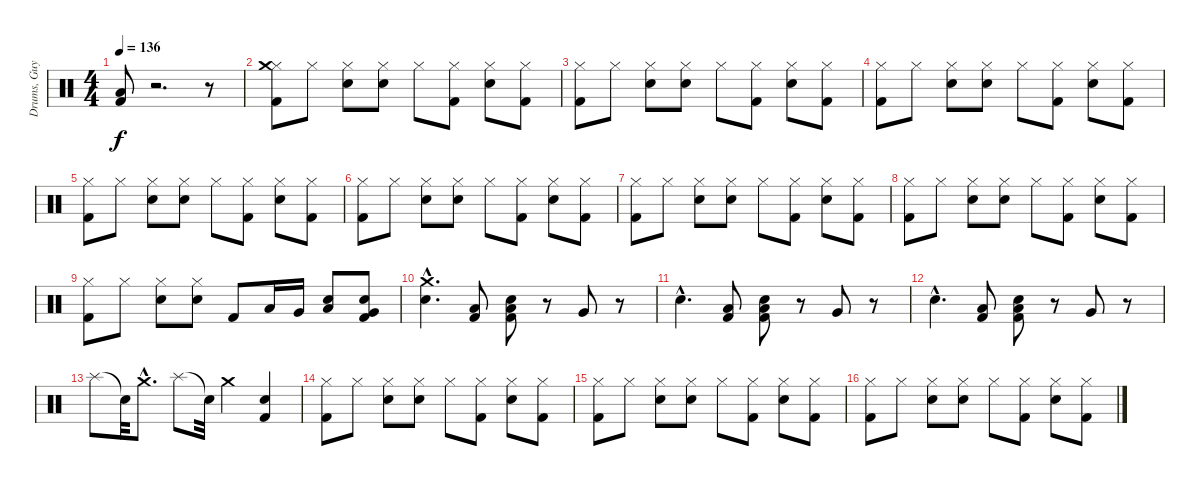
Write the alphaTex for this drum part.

\track ("Drums, Guy" "Drums, Guy") {instrument percussion}
\staff {score}
\articulation defaults
\ts (4 4)
\tempo 136
\clef neutral
\ks c
("Low Floor Tom (hit)" "Kick (hit) 2").8{dy f} r.2{d} r.8 |
("Kick (hit) 2" "Hi-Hat (closed)" "Crash medium (hit)").8 "Hi-Hat (closed)".8 ("Electric Snare (hit)" "Hi-Hat (closed)").8 ("Electric Snare (hit)" "Hi-Hat (closed)").8 "Hi-Hat (closed)".8 ("Kick (hit) 2" "Hi-Hat (closed)").8 ("Electric Snare (hit)" "Hi-Hat (closed)").8 ("Kick (hit) 2" "Hi-Hat (closed)").8 |
("Hi-Hat (closed)" "Kick (hit) 2").8 "Hi-Hat (closed)".8 ("Electric Snare (hit)" "Hi-Hat (closed)").8 ("Electric Snare (hit)" "Hi-Hat (closed)").8 "Hi-Hat (closed)".8 ("Kick (hit) 2" "Hi-Hat (closed)").8 ("Electric Snare (hit)" "Hi-Hat (closed)").8 ("Kick (hit) 2" "Hi-Hat (closed)").8 |
("Kick (hit) 2" "Hi-Hat (closed)").8 "Hi-Hat (closed)".8 ("Electric Snare (hit)" "Hi-Hat (closed)").8 ("Electric Snare (hit)" "Hi-Hat (closed)").8 "Hi-Hat (closed)".8 ("Kick (hit) 2" "Hi-Hat (closed)").8 ("Electric Snare (hit)" "Hi-Hat (closed)").8 ("Kick (hit) 2" "Hi-Hat (closed)").8 |
("Kick (hit) 2" "Hi-Hat (closed)").8 "Hi-Hat (closed)".8 ("Electric Snare (hit)" "Hi-Hat (closed)").8 ("Electric Snare (hit)" "Hi-Hat (closed)").8 "Hi-Hat (closed)".8 ("Kick (hit) 2" "Hi-Hat (closed)").8 ("Electric Snare (hit)" "Hi-Hat (closed)").8 ("Kick (hit) 2" "Hi-Hat (closed)").8 |
("Kick (hit) 2" "Hi-Hat (closed)").8 "Hi-Hat (closed)".8 ("Electric Snare (hit)" "Hi-Hat (closed)").8 ("Electric Snare (hit)" "Hi-Hat (closed)").8 "Hi-Hat (closed)".8 ("Kick (hit) 2" "Hi-Hat (closed)").8 ("Electric Snare (hit)" "Hi-Hat (closed)").8 ("Kick (hit) 2" "Hi-Hat (closed)").8 |
("Kick (hit) 2" "Hi-Hat (closed)").8 "Hi-Hat (closed)".8 ("Electric Snare (hit)" "Hi-Hat (closed)").8 ("Electric Snare (hit)" "Hi-Hat (closed)").8 "Hi-Hat (closed)".8 ("Kick (hit) 2" "Hi-Hat (closed)").8 ("Electric Snare (hit)" "Hi-Hat (closed)").8 ("Kick (hit) 2" "Hi-Hat (closed)").8 |
("Kick (hit) 2" "Hi-Hat (closed)").8 "Hi-Hat (closed)".8 ("Electric Snare (hit)" "Hi-Hat (closed)").8 ("Electric Snare (hit)" "Hi-Hat (closed)").8 "Hi-Hat (closed)".8 ("Kick (hit) 2" "Hi-Hat (closed)").8 ("Electric Snare (hit)" "Hi-Hat (closed)").8 ("Kick (hit) 2" "Hi-Hat (closed)").8 |
("Hi-Hat (closed)" "Kick (hit) 2").8 "Hi-Hat (closed)".8 ("Electric Snare (hit)" "Hi-Hat (closed)").8 ("Electric Snare (hit)" "Hi-Hat (closed)").8 "Kick (hit) 2".8 "Low Floor Tom (hit)".16 "Very Low Tom (hit)".16 ("Low Tom (hit)" "Electric Snare (hit)").8 ("Very Low Tom (hit)" "Electric Snare (hit)" "Kick (hit) 2").8 |
("Crash medium (hit)"{hac} "Electric Snare (hit)"{hac}).4{d} ("Kick (hit) 2" "Low Floor Tom (hit)").8 ("Kick (hit) 2" "Low Floor Tom (hit)" "Electric Snare (hit)").8 r.8 "Very Low Tom (hit)".8 r.8 |
"Electric Snare (hit)"{hac}.4{d} ("Kick (hit) 2" "Low Floor Tom (hit)").8 ("Kick (hit) 2" "Low Floor Tom (hit)" "Electric Snare (hit)").8 r.8 "Very Low Tom (hit)".8 r.8 |
"Electric Snare (hit)"{hac}.4{d} ("Kick (hit) 2" "Low Floor Tom (hit)").8 ("Kick (hit) 2" "Low Floor Tom (hit)" "Electric Snare (hit)").8 r.8 "Very Low Tom (hit)".8 r.8 |
"Splash (hit)".8 "Snare (hit)"{t}.32 "Crash medium (hit)"{hac}.8{d} "Splash (hit)".8 "Snare (hit)"{t}.32 "Crash medium (hit)".4 ("Kick (hit) 2" "Electric Snare (hit)").4 |
("Hi-Hat (closed)" "Kick (hit) 2").8 "Hi-Hat (closed)".8 ("Electric Snare (hit)" "Hi-Hat (closed)").8 ("Electric Snare (hit)" "Hi-Hat (closed)").8 "Hi-Hat (closed)".8 ("Kick (hit) 2" "Hi-Hat (closed)").8 ("Electric Snare (hit)" "Hi-Hat (closed)").8 ("Kick (hit) 2" "Hi-Hat (closed)").8 |
("Hi-Hat (closed)" "Kick (hit) 2").8 "Hi-Hat (closed)".8 ("Electric Snare (hit)" "Hi-Hat (closed)").8 ("Electric Snare (hit)" "Hi-Hat (closed)").8 "Hi-Hat (closed)".8 ("Kick (hit) 2" "Hi-Hat (closed)").8 ("Electric Snare (hit)" "Hi-Hat (closed)").8 ("Kick (hit) 2" "Hi-Hat (closed)").8 |
("Hi-Hat (closed)" "Kick (hit) 2").8 "Hi-Hat (closed)".8 ("Electric Snare (hit)" "Hi-Hat (closed)").8 ("Electric Snare (hit)" "Hi-Hat (closed)").8 "Hi-Hat (closed)".8 ("Kick (hit) 2" "Hi-Hat (closed)").8 ("Electric Snare (hit)" "Hi-Hat (closed)").8 ("Kick (hit) 2" "Hi-Hat (closed)").8
